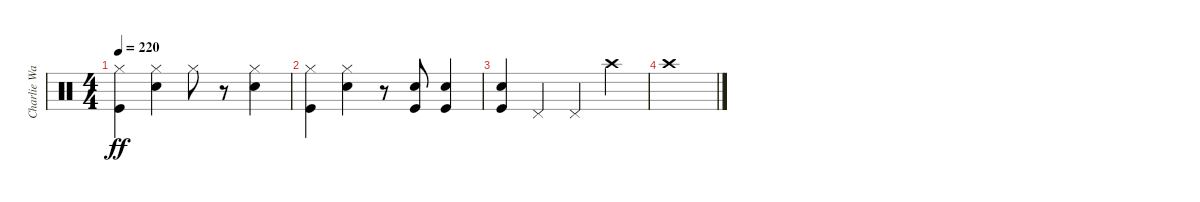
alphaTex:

\track ("Charlie Watts" "Charlie Wa") {instrument percussion}
\staff {score}
\articulation defaults
\ts (4 4)
\tempo 220
\clef neutral
\ks c
("Hi-Hat (closed)" "Kick (hit)").4{dy ff} ("Hi-Hat (closed)" "Snare (hit) 2").4 "Hi-Hat (closed)".8 r.8 ("Hi-Hat (closed)" "Snare (hit) 2").4 |
("Hi-Hat (closed)" "Kick (hit)").4 ("Hi-Hat (closed)" "Snare (hit) 2").4 r.8 ("Snare (hit) 2" "Kick (hit)").8 ("Snare (hit) 2" "Kick (hit)").4 |
("Snare (hit) 2" "Kick (hit)").4 "Pedal Hi-Hat (hit)".4 "Pedal Hi-Hat (hit)".4 "Crash high (hit)".4 |
"Crash high (hit)".1
